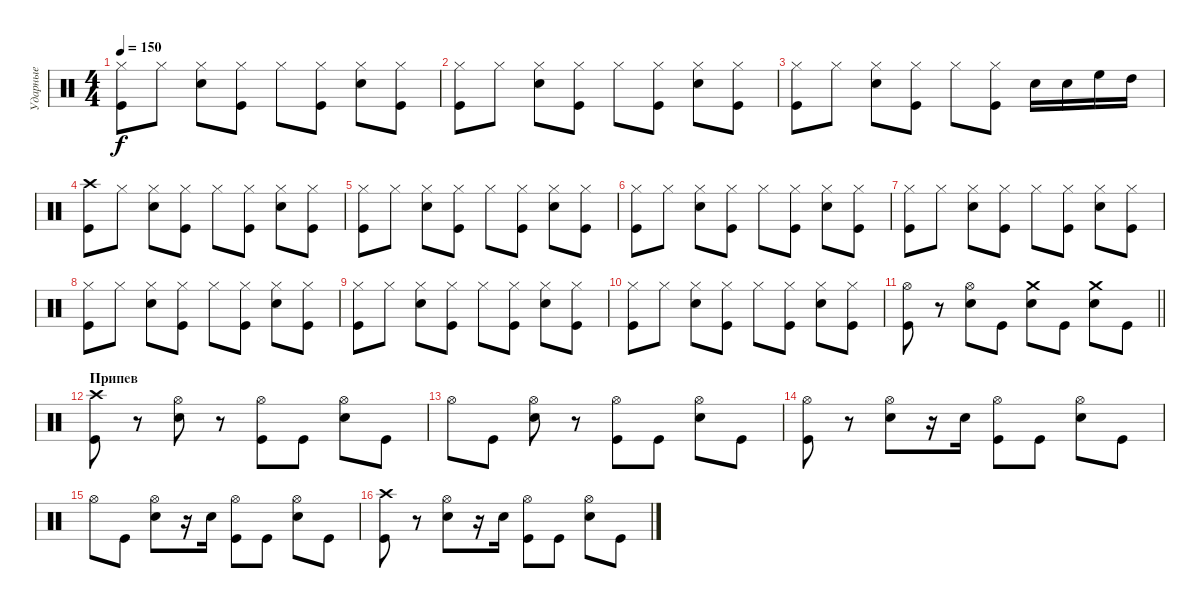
\track ("Ударные" "Ударные") {instrument percussion}
\staff {score}
\articulation defaults
\ts (4 4)
\tempo 150
\clef neutral
\ks c
("Kick (hit)" "Hi-Hat (closed)").8{dy f} "Hi-Hat (closed)".8 ("Snare (hit) 2" "Hi-Hat (closed)").8 ("Kick (hit)" "Hi-Hat (closed)").8 "Hi-Hat (closed)".8 ("Kick (hit)" "Hi-Hat (closed)").8 ("Snare (hit) 2" "Hi-Hat (closed)").8 ("Kick (hit)" "Hi-Hat (closed)").8 |
("Kick (hit)" "Hi-Hat (closed)").8 "Hi-Hat (closed)".8 ("Snare (hit) 2" "Hi-Hat (closed)").8 ("Kick (hit)" "Hi-Hat (closed)").8 "Hi-Hat (closed)".8 ("Kick (hit)" "Hi-Hat (closed)").8 ("Snare (hit) 2" "Hi-Hat (closed)").8 ("Kick (hit)" "Hi-Hat (closed)").8 |
("Kick (hit)" "Hi-Hat (closed)").8 "Hi-Hat (closed)".8 ("Snare (hit) 2" "Hi-Hat (closed)").8 ("Kick (hit)" "Hi-Hat (closed)").8 "Hi-Hat (closed)".8 ("Kick (hit)" "Hi-Hat (closed)").8 "Snare (hit) 2".16 "Snare (hit) 2".16 "High Floor Tom (hit)".16 "High Tom (hit)".16 |
("Kick (hit)" "Crash high (hit)").8 "Hi-Hat (closed)".8 ("Snare (hit) 2" "Hi-Hat (closed)").8 ("Kick (hit)" "Hi-Hat (closed)").8 "Hi-Hat (closed)".8 ("Kick (hit)" "Hi-Hat (closed)").8 ("Snare (hit) 2" "Hi-Hat (closed)").8 ("Kick (hit)" "Hi-Hat (closed)").8 |
("Kick (hit)" "Hi-Hat (closed)").8 "Hi-Hat (closed)".8 ("Snare (hit) 2" "Hi-Hat (closed)").8 ("Kick (hit)" "Hi-Hat (closed)").8 "Hi-Hat (closed)".8 ("Kick (hit)" "Hi-Hat (closed)").8 ("Snare (hit) 2" "Hi-Hat (closed)").8 ("Kick (hit)" "Hi-Hat (closed)").8 |
("Kick (hit)" "Hi-Hat (closed)").8 "Hi-Hat (closed)".8 ("Snare (hit) 2" "Hi-Hat (closed)").8 ("Kick (hit)" "Hi-Hat (closed)").8 "Hi-Hat (closed)".8 ("Kick (hit)" "Hi-Hat (closed)").8 ("Snare (hit) 2" "Hi-Hat (closed)").8 ("Kick (hit)" "Hi-Hat (closed)").8 |
("Kick (hit)" "Hi-Hat (closed)").8 "Hi-Hat (closed)".8 ("Snare (hit) 2" "Hi-Hat (closed)").8 ("Kick (hit)" "Hi-Hat (closed)").8 "Hi-Hat (closed)".8 ("Kick (hit)" "Hi-Hat (closed)").8 ("Snare (hit) 2" "Hi-Hat (closed)").8 ("Kick (hit)" "Hi-Hat (closed)").8 |
("Kick (hit)" "Hi-Hat (closed)").8 "Hi-Hat (closed)".8 ("Snare (hit) 2" "Hi-Hat (closed)").8 ("Kick (hit)" "Hi-Hat (closed)").8 "Hi-Hat (closed)".8 ("Kick (hit)" "Hi-Hat (closed)").8 ("Snare (hit) 2" "Hi-Hat (closed)").8 ("Kick (hit)" "Hi-Hat (closed)").8 |
("Kick (hit)" "Hi-Hat (closed)").8 "Hi-Hat (closed)".8 ("Snare (hit) 2" "Hi-Hat (closed)").8 ("Kick (hit)" "Hi-Hat (closed)").8 "Hi-Hat (closed)".8 ("Kick (hit)" "Hi-Hat (closed)").8 ("Snare (hit) 2" "Hi-Hat (closed)").8 ("Kick (hit)" "Hi-Hat (closed)").8 |
("Kick (hit)" "Hi-Hat (closed)").8 "Hi-Hat (closed)".8 ("Snare (hit) 2" "Hi-Hat (closed)").8 ("Kick (hit)" "Hi-Hat (closed)").8 "Hi-Hat (closed)".8 ("Kick (hit)" "Hi-Hat (closed)").8 ("Snare (hit) 2" "Hi-Hat (closed)").8 ("Kick (hit)" "Hi-Hat (closed)").8 |
\barLineRight lightlight
("Kick (hit)" "Hi-Hat (open)").8 r.8 ("Snare (hit) 2" "Hi-Hat (open)").8 "Kick (hit)".8 ("Snare (hit) 2" "Crash medium (hit)").8 "Kick (hit)".8 ("Snare (hit) 2" "Crash medium (hit)").8 "Kick (hit)".8 |
\section ("" "Припев")
("Kick (hit)" "Crash high (hit)").8 r.8 ("Snare (hit) 2" "Hi-Hat (open)").8 r.8 ("Kick (hit)" "Hi-Hat (open)").8 "Kick (hit)".8 ("Snare (hit) 2" "Hi-Hat (open)").8 "Kick (hit)".8 |
"Hi-Hat (open)".8 "Kick (hit)".8 ("Snare (hit) 2" "Hi-Hat (open)").8 r.8 ("Kick (hit)" "Hi-Hat (open)").8 "Kick (hit)".8 ("Snare (hit) 2" "Hi-Hat (open)").8 "Kick (hit)".8 |
("Kick (hit)" "Hi-Hat (open)").8 r.8 ("Snare (hit) 2" "Hi-Hat (open)").8 r.16 "Snare (hit) 2".16 ("Kick (hit)" "Hi-Hat (open)").8 "Kick (hit)".8 ("Snare (hit) 2" "Hi-Hat (open)").8 "Kick (hit)".8 |
"Hi-Hat (open)".8 "Kick (hit)".8 ("Snare (hit) 2" "Hi-Hat (open)").8 r.16 "Snare (hit) 2".16 ("Kick (hit)" "Hi-Hat (open)").8 "Kick (hit)".8 ("Snare (hit) 2" "Hi-Hat (open)").8 "Kick (hit)".8 |
("Kick (hit)" "Crash high (hit)").8 r.8 ("Snare (hit) 2" "Hi-Hat (open)").8 r.16 "Snare (hit) 2".16 ("Kick (hit)" "Hi-Hat (open)").8 "Kick (hit)".8 ("Snare (hit) 2" "Hi-Hat (open)").8 "Kick (hit)".8
